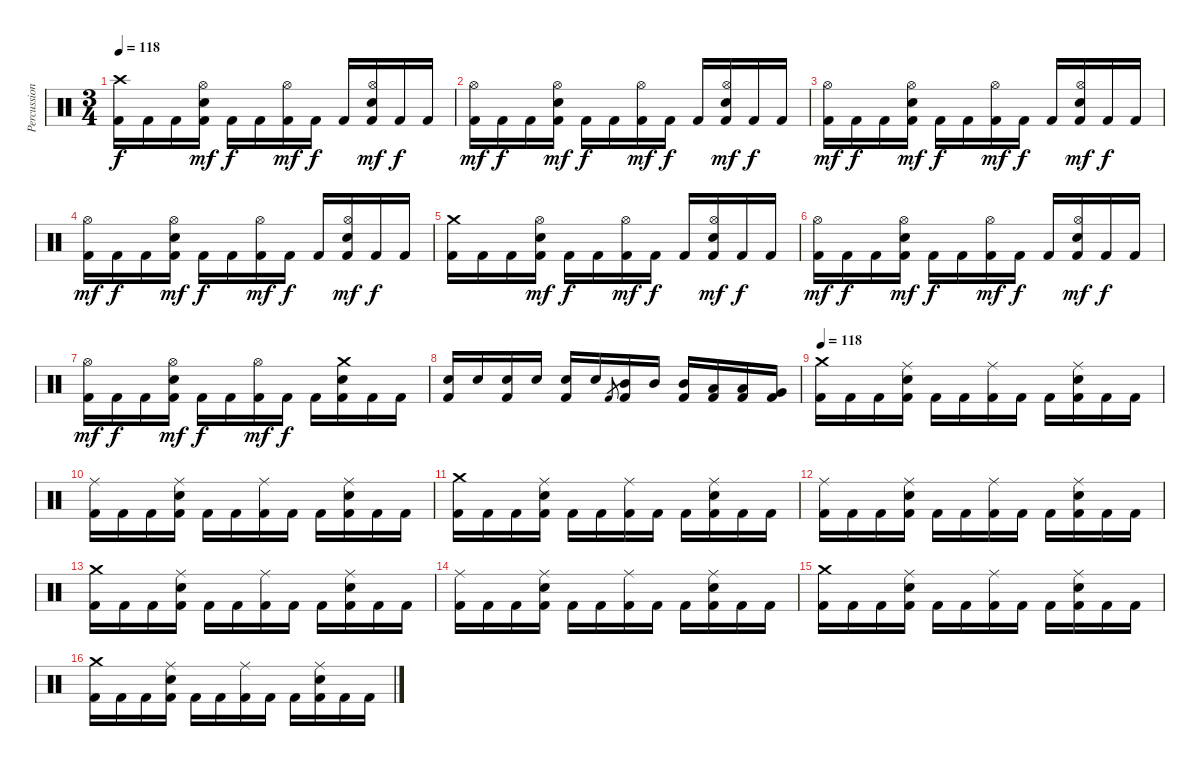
\track ("Percussion" "Percussion") {instrument percussion}
\staff {score}
\articulation defaults
\ts (3 4)
\tempo 118
\clef neutral
\ks c
("Crash high (hit)" "Kick (hit) 2").16{dy f} "Kick (hit) 2".16 "Kick (hit) 2".16 ("Hi-Hat (open)" "Electric Snare (hit)" "Kick (hit) 2").16{dy mf} "Kick (hit) 2".16{dy f} "Kick (hit) 2".16 ("Hi-Hat (open)" "Kick (hit) 2").16{dy mf} "Kick (hit) 2".16{dy f} "Kick (hit) 2".16 ("Hi-Hat (open)" "Electric Snare (hit)" "Kick (hit) 2").16{dy mf} "Kick (hit) 2".16{dy f} "Kick (hit) 2".16 |
("Hi-Hat (open)" "Kick (hit) 2").16{dy mf} "Kick (hit) 2".16{dy f} "Kick (hit) 2".16 ("Hi-Hat (open)" "Electric Snare (hit)" "Kick (hit) 2").16{dy mf} "Kick (hit) 2".16{dy f} "Kick (hit) 2".16 ("Hi-Hat (open)" "Kick (hit) 2").16{dy mf} "Kick (hit) 2".16{dy f} "Kick (hit) 2".16 ("Hi-Hat (open)" "Electric Snare (hit)" "Kick (hit) 2").16{dy mf} "Kick (hit) 2".16{dy f} "Kick (hit) 2".16 |
("Hi-Hat (open)" "Kick (hit) 2").16{dy mf} "Kick (hit) 2".16{dy f} "Kick (hit) 2".16 ("Hi-Hat (open)" "Electric Snare (hit)" "Kick (hit) 2").16{dy mf} "Kick (hit) 2".16{dy f} "Kick (hit) 2".16 ("Hi-Hat (open)" "Kick (hit) 2").16{dy mf} "Kick (hit) 2".16{dy f} "Kick (hit) 2".16 ("Hi-Hat (open)" "Electric Snare (hit)" "Kick (hit) 2").16{dy mf} "Kick (hit) 2".16{dy f} "Kick (hit) 2".16 |
("Hi-Hat (open)" "Kick (hit) 2").16{dy mf} "Kick (hit) 2".16{dy f} "Kick (hit) 2".16 ("Hi-Hat (open)" "Electric Snare (hit)" "Kick (hit) 2").16{dy mf} "Kick (hit) 2".16{dy f} "Kick (hit) 2".16 ("Hi-Hat (open)" "Kick (hit) 2").16{dy mf} "Kick (hit) 2".16{dy f} "Kick (hit) 2".16 ("Hi-Hat (open)" "Electric Snare (hit)" "Kick (hit) 2").16{dy mf} "Kick (hit) 2".16{dy f} "Kick (hit) 2".16 |
("Crash medium (hit)" "Kick (hit) 2").16 "Kick (hit) 2".16 "Kick (hit) 2".16 ("Hi-Hat (open)" "Electric Snare (hit)" "Kick (hit) 2").16{dy mf} "Kick (hit) 2".16{dy f} "Kick (hit) 2".16 ("Hi-Hat (open)" "Kick (hit) 2").16{dy mf} "Kick (hit) 2".16{dy f} "Kick (hit) 2".16 ("Hi-Hat (open)" "Electric Snare (hit)" "Kick (hit) 2").16{dy mf} "Kick (hit) 2".16{dy f} "Kick (hit) 2".16 |
("Hi-Hat (open)" "Kick (hit) 2").16{dy mf} "Kick (hit) 2".16{dy f} "Kick (hit) 2".16 ("Hi-Hat (open)" "Electric Snare (hit)" "Kick (hit) 2").16{dy mf} "Kick (hit) 2".16{dy f} "Kick (hit) 2".16 ("Hi-Hat (open)" "Kick (hit) 2").16{dy mf} "Kick (hit) 2".16{dy f} "Kick (hit) 2".16 ("Hi-Hat (open)" "Electric Snare (hit)" "Kick (hit) 2").16{dy mf} "Kick (hit) 2".16{dy f} "Kick (hit) 2".16 |
("Hi-Hat (open)" "Kick (hit) 2").16{dy mf} "Kick (hit) 2".16{dy f} "Kick (hit) 2".16 ("Hi-Hat (open)" "Electric Snare (hit)" "Kick (hit) 2").16{dy mf} "Kick (hit) 2".16{dy f} "Kick (hit) 2".16 ("Hi-Hat (open)" "Kick (hit) 2").16{dy mf} "Kick (hit) 2".16{dy f} "Kick (hit) 2".16 ("Crash medium (hit)" "Electric Snare (hit)" "Kick (hit) 2").16 "Kick (hit) 2".16 "Kick (hit) 2".16 |
("Electric Snare (hit)" "Kick (hit) 2").16 "Electric Snare (hit)".16 ("Electric Snare (hit)" "Kick (hit) 2").16 "Electric Snare (hit)".16 ("Electric Snare (hit)" "Kick (hit) 2").16 "Electric Snare (hit)".16 "Kick (hit) 2".8{gr} ("Mid Tom (hit)" "Kick (hit) 2").16 "Mid Tom (hit)".16 ("Mid Tom (hit)" "Kick (hit) 2").16 ("Low Tom (hit)" "Kick (hit) 2").16 ("Low Tom (hit)" "Kick (hit) 2").16 ("Very Low Tom (hit)" "Kick (hit) 2").16 |
\tempo 118
("Crash medium (hit)" "Kick (hit) 2").16 "Kick (hit) 2".16 "Kick (hit) 2".16 ("Ride (middle)" "Electric Snare (hit)" "Kick (hit) 2").16 "Kick (hit) 2".16 "Kick (hit) 2".16 ("Ride (middle)" "Kick (hit) 2").16 "Kick (hit) 2".16 "Kick (hit) 2".16 ("Ride (middle)" "Electric Snare (hit)" "Kick (hit) 2").16 "Kick (hit) 2".16 "Kick (hit) 2".16 |
("Ride (middle)" "Kick (hit) 2").16 "Kick (hit) 2".16 "Kick (hit) 2".16 ("Ride (middle)" "Electric Snare (hit)" "Kick (hit) 2").16 "Kick (hit) 2".16 "Kick (hit) 2".16 ("Ride (middle)" "Kick (hit) 2").16 "Kick (hit) 2".16 "Kick (hit) 2".16 ("Ride (middle)" "Electric Snare (hit)" "Kick (hit) 2").16 "Kick (hit) 2".16 "Kick (hit) 2".16 |
("Crash medium (hit)" "Kick (hit) 2").16 "Kick (hit) 2".16 "Kick (hit) 2".16 ("Ride (middle)" "Electric Snare (hit)" "Kick (hit) 2").16 "Kick (hit) 2".16 "Kick (hit) 2".16 ("Ride (middle)" "Kick (hit) 2").16 "Kick (hit) 2".16 "Kick (hit) 2".16 ("Ride (middle)" "Electric Snare (hit)" "Kick (hit) 2").16 "Kick (hit) 2".16 "Kick (hit) 2".16 |
("Ride (middle)" "Kick (hit) 2").16 "Kick (hit) 2".16 "Kick (hit) 2".16 ("Ride (middle)" "Electric Snare (hit)" "Kick (hit) 2").16 "Kick (hit) 2".16 "Kick (hit) 2".16 ("Ride (middle)" "Kick (hit) 2").16 "Kick (hit) 2".16 "Kick (hit) 2".16 ("Ride (middle)" "Electric Snare (hit)" "Kick (hit) 2").16 "Kick (hit) 2".16 "Kick (hit) 2".16 |
("Crash medium (hit)" "Kick (hit) 2").16 "Kick (hit) 2".16 "Kick (hit) 2".16 ("Ride (middle)" "Electric Snare (hit)" "Kick (hit) 2").16 "Kick (hit) 2".16 "Kick (hit) 2".16 ("Ride (middle)" "Kick (hit) 2").16 "Kick (hit) 2".16 "Kick (hit) 2".16 ("Ride (middle)" "Electric Snare (hit)" "Kick (hit) 2").16 "Kick (hit) 2".16 "Kick (hit) 2".16 |
("Ride (middle)" "Kick (hit) 2").16 "Kick (hit) 2".16 "Kick (hit) 2".16 ("Ride (middle)" "Electric Snare (hit)" "Kick (hit) 2").16 "Kick (hit) 2".16 "Kick (hit) 2".16 ("Ride (middle)" "Kick (hit) 2").16 "Kick (hit) 2".16 "Kick (hit) 2".16 ("Ride (middle)" "Electric Snare (hit)" "Kick (hit) 2").16 "Kick (hit) 2".16 "Kick (hit) 2".16 |
("Crash medium (hit)" "Kick (hit) 2").16 "Kick (hit) 2".16 "Kick (hit) 2".16 ("Ride (middle)" "Electric Snare (hit)" "Kick (hit) 2").16 "Kick (hit) 2".16 "Kick (hit) 2".16 ("Ride (middle)" "Kick (hit) 2").16 "Kick (hit) 2".16 "Kick (hit) 2".16 ("Ride (middle)" "Electric Snare (hit)" "Kick (hit) 2").16 "Kick (hit) 2".16 "Kick (hit) 2".16 |
("Crash medium (hit)" "Kick (hit) 2").16 "Kick (hit) 2".16 "Kick (hit) 2".16 ("Ride (middle)" "Electric Snare (hit)" "Kick (hit) 2").16 "Kick (hit) 2".16 "Kick (hit) 2".16 ("Ride (middle)" "Kick (hit) 2").16 "Kick (hit) 2".16 "Kick (hit) 2".16 ("Ride (middle)" "Electric Snare (hit)" "Kick (hit) 2").16 "Kick (hit) 2".16 "Kick (hit) 2".16
